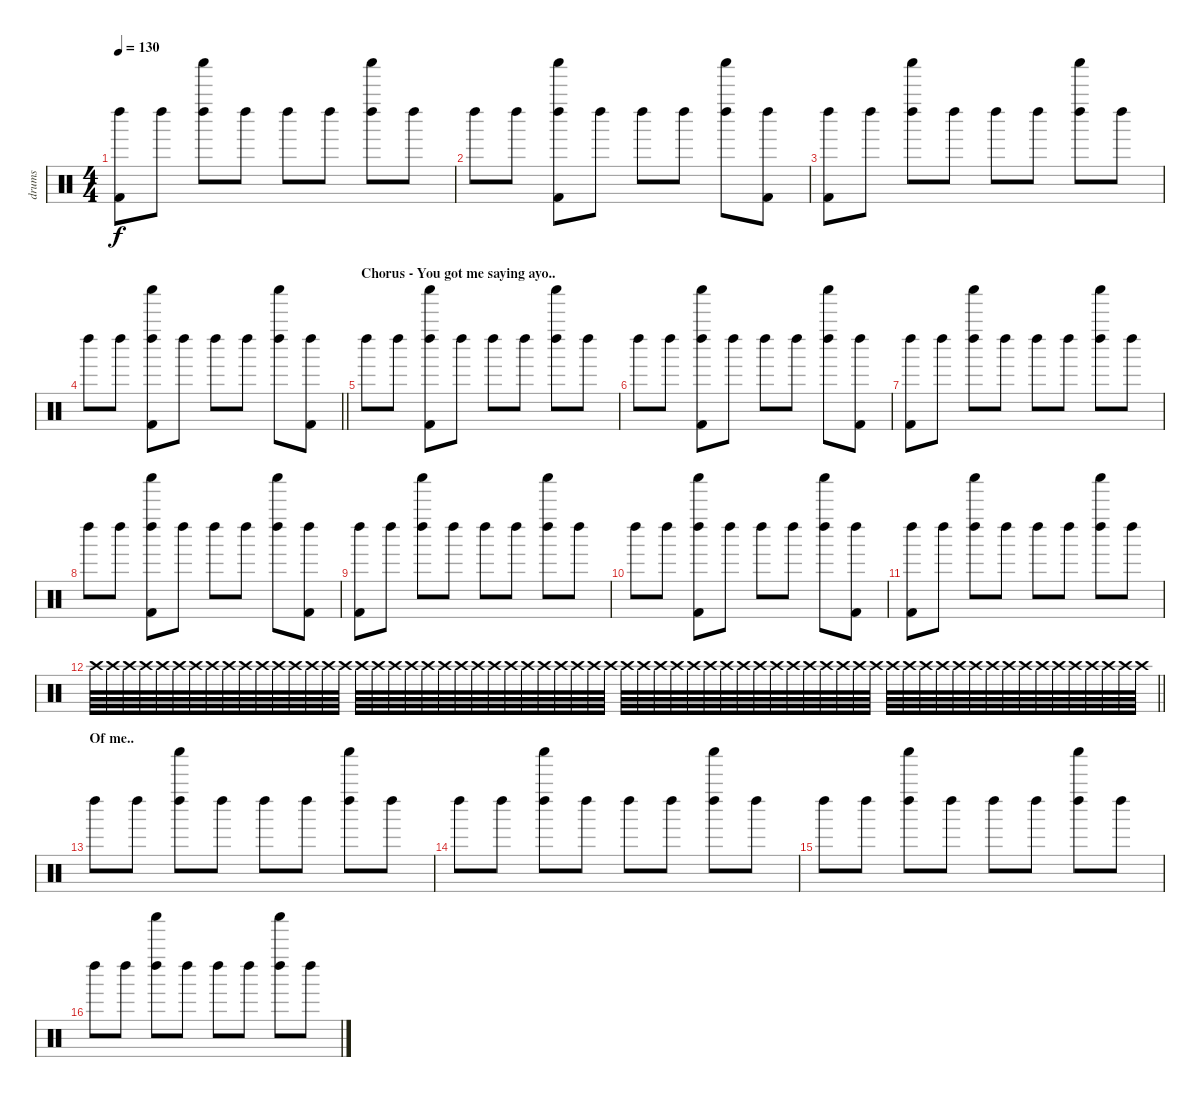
\track ("drums" "drums") {instrument percussion}
\staff {score}
\articulation defaults
\ts (4 4)
\tempo 130
\clef neutral
\ks c
("Left Maraca (hit)" "Kick (hit) 2").8{dy f} "Left Maraca (hit)".8 ("Left Maraca (hit)" "Shaker (hit)").8 "Left Maraca (hit)".8 "Left Maraca (hit)".8 "Left Maraca (hit)".8 ("Left Maraca (hit)" "Shaker (hit)").8 "Left Maraca (hit)".8 |
"Left Maraca (hit)".8 "Left Maraca (hit)".8 ("Left Maraca (hit)" "Shaker (hit)" "Kick (hit) 2").8 "Left Maraca (hit)".8 "Left Maraca (hit)".8 "Left Maraca (hit)".8 ("Left Maraca (hit)" "Shaker (hit)").8 ("Left Maraca (hit)" "Kick (hit) 2").8 |
("Left Maraca (hit)" "Kick (hit) 2").8 "Left Maraca (hit)".8 ("Left Maraca (hit)" "Shaker (hit)").8 "Left Maraca (hit)".8 "Left Maraca (hit)".8 "Left Maraca (hit)".8 ("Left Maraca (hit)" "Shaker (hit)").8 "Left Maraca (hit)".8 |
\barLineRight lightlight "Left Maraca (hit)".8 "Left Maraca (hit)".8
("Left Maraca (hit)" "Shaker (hit)" "Kick (hit) 2").8 "Left Maraca (hit)".8 "Left Maraca (hit)".8 "Left Maraca (hit)".8 ("Left Maraca (hit)" "Shaker (hit)").8 ("Left Maraca (hit)" "Kick (hit) 2").8 |
\section ("" "Chorus - You got me saying ayo..")
"Left Maraca (hit)".8 "Left Maraca (hit)".8 ("Left Maraca (hit)" "Shaker (hit)" "Kick (hit) 2").8 "Left Maraca (hit)".8 "Left Maraca (hit)".8 "Left Maraca (hit)".8 ("Left Maraca (hit)" "Shaker (hit)").8 "Left Maraca (hit)".8 |
"Left Maraca (hit)".8 "Left Maraca (hit)".8 ("Left Maraca (hit)" "Shaker (hit)" "Kick (hit) 2").8 "Left Maraca (hit)".8 "Left Maraca (hit)".8 "Left Maraca (hit)".8 ("Left Maraca (hit)" "Shaker (hit)").8 ("Left Maraca (hit)" "Kick (hit) 2").8 |
("Left Maraca (hit)" "Kick (hit) 2").8 "Left Maraca (hit)".8 ("Left Maraca (hit)" "Shaker (hit)").8 "Left Maraca (hit)".8 "Left Maraca (hit)".8 "Left Maraca (hit)".8 ("Left Maraca (hit)" "Shaker (hit)").8 "Left Maraca (hit)".8 |
"Left Maraca (hit)".8 "Left Maraca (hit)".8 ("Left Maraca (hit)" "Shaker (hit)" "Kick (hit) 2").8 "Left Maraca (hit)".8 "Left Maraca (hit)".8 "Left Maraca (hit)".8 ("Left Maraca (hit)" "Shaker (hit)").8 ("Left Maraca (hit)" "Kick (hit) 2").8 |
("Left Maraca (hit)" "Kick (hit) 2").8 "Left Maraca (hit)".8 ("Left Maraca (hit)" "Shaker (hit)").8 "Left Maraca (hit)".8 "Left Maraca (hit)".8 "Left Maraca (hit)".8 ("Left Maraca (hit)" "Shaker (hit)").8 "Left Maraca (hit)".8 |
"Left Maraca (hit)".8 "Left Maraca (hit)".8 ("Left Maraca (hit)" "Shaker (hit)" "Kick (hit) 2").8 "Left Maraca (hit)".8 "Left Maraca (hit)".8 "Left Maraca (hit)".8 ("Left Maraca (hit)" "Shaker (hit)").8 ("Left Maraca (hit)" "Kick (hit) 2").8 |
("Left Maraca (hit)" "Kick (hit) 2").8 "Left Maraca (hit)".8 ("Left Maraca (hit)" "Shaker (hit)").8 "Left Maraca (hit)".8 "Left Maraca (hit)".8 "Left Maraca (hit)".8 ("Left Maraca (hit)" "Shaker (hit)").8 "Left Maraca (hit)".8 |
\barLineRight lightlight "Crash high (hit)".64 "Crash high (hit)".64 "Crash high (hit)".64 "Crash high (hit)".64 "Crash high (hit)".64 "Crash high (hit)".64 "Crash high (hit)".64 "Crash high (hit)".64 "Crash high (hit)".64 "Crash high (hit)".64 "Crash high (hit)".64 "Crash high (hit)".64 "Crash high (hit)".64 "Crash high (hit)".64 "Crash high (hit)".64 "Crash high (hit)".64 "Crash high (hit)".64 "Crash high (hit)".64 "Crash high (hit)".64 "Crash high (hit)".64 "Crash high (hit)".64 "Crash high (hit)".64 "Crash high (hit)".64 "Crash high (hit)".64 "Crash high (hit)".64 "Crash high (hit)".64 "Crash high (hit)".64 "Crash high (hit)".64 "Crash high (hit)".64 "Crash high (hit)".64 "Crash high (hit)".64 "Crash high (hit)".64 "Crash high (hit)".64 "Crash high (hit)".64 "Crash high (hit)".64 "Crash high (hit)".64 "Crash high (hit)".64 "Crash high (hit)".64 "Crash high (hit)".64 "Crash high (hit)".64 "Crash high (hit)".64 "Crash high (hit)".64 "Crash high (hit)".64 "Crash high (hit)".64 "Crash high (hit)".64 "Crash high (hit)".64 "Crash high (hit)".64 "Crash high (hit)".64 "Crash high (hit)".64 "Crash high (hit)".64 "Crash high (hit)".64 "Crash high (hit)".64 "Crash high (hit)".64 "Crash high (hit)".64 "Crash high (hit)".64 "Crash high (hit)".64 "Crash high (hit)".64 "Crash high (hit)".64 "Crash high (hit)".64 "Crash high (hit)".64 "Crash high (hit)".64 "Crash high (hit)".64 "Crash high (hit)".64 "Crash high (hit)".64
|
\section ("" "Of me..")
"Left Maraca (hit)".8 "Left Maraca (hit)".8 ("Left Maraca (hit)" "Shaker (hit)").8 "Left Maraca (hit)".8 "Left Maraca (hit)".8 "Left Maraca (hit)".8 ("Left Maraca (hit)" "Shaker (hit)").8 "Left Maraca (hit)".8 |
"Left Maraca (hit)".8 "Left Maraca (hit)".8 ("Left Maraca (hit)" "Shaker (hit)").8 "Left Maraca (hit)".8 "Left Maraca (hit)".8 "Left Maraca (hit)".8 ("Left Maraca (hit)" "Shaker (hit)").8 "Left Maraca (hit)".8 |
"Left Maraca (hit)".8 "Left Maraca (hit)".8 ("Left Maraca (hit)" "Shaker (hit)").8 "Left Maraca (hit)".8 "Left Maraca (hit)".8 "Left Maraca (hit)".8 ("Left Maraca (hit)" "Shaker (hit)").8 "Left Maraca (hit)".8 |
"Left Maraca (hit)".8 "Left Maraca (hit)".8 ("Left Maraca (hit)" "Shaker (hit)").8 "Left Maraca (hit)".8 "Left Maraca (hit)".8 "Left Maraca (hit)".8 ("Left Maraca (hit)" "Shaker (hit)").8 "Left Maraca (hit)".8
